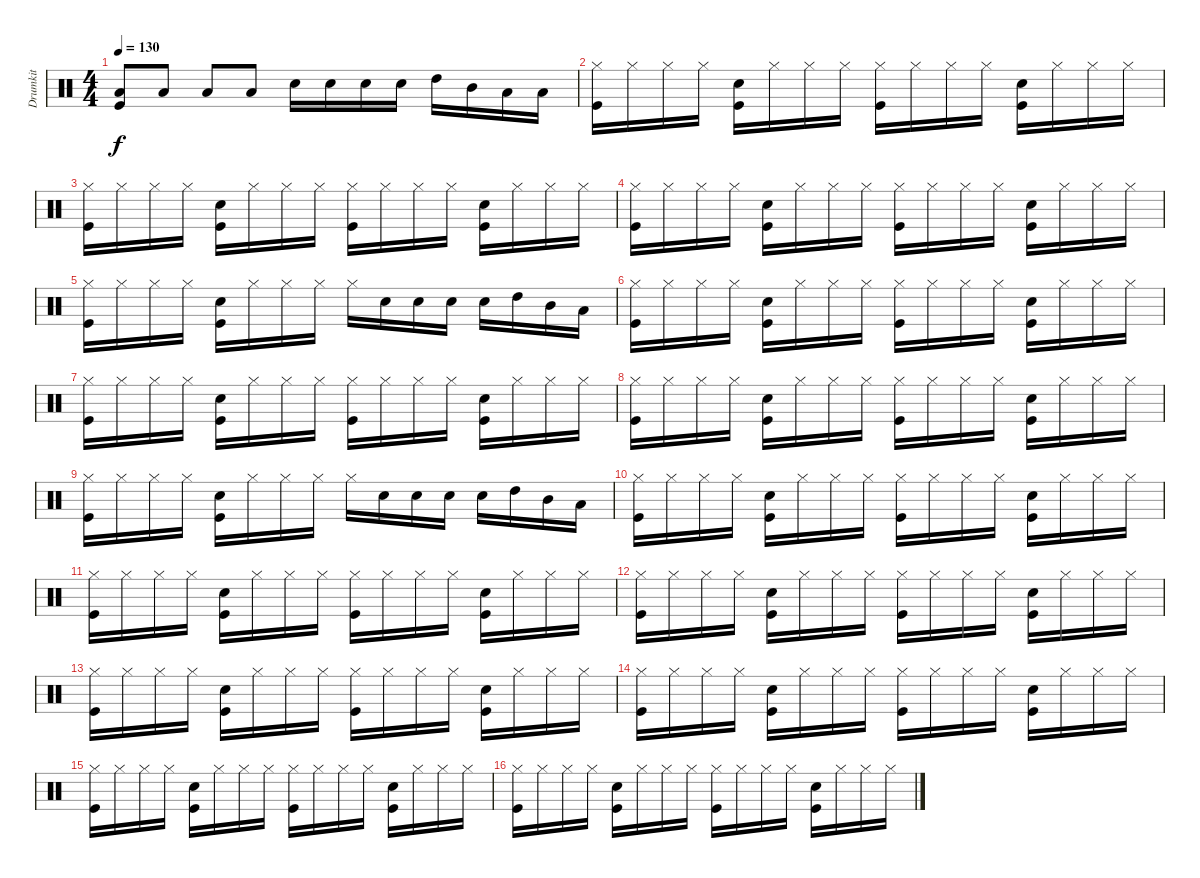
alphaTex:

\track ("Drumkit" "Drumkit") {instrument percussion}
\staff {score}
\articulation defaults
\ts (4 4)
\tempo 130
\clef neutral
\ks c
("Low Tom (hit)" "Kick (hit)").8{dy f} "Low Tom (hit)".8 "Low Tom (hit)".8 "Low Tom (hit)".8 "Snare (hit) 2".16 "Snare (hit) 2".16 "Snare (hit) 2".16 "Snare (hit) 2".16 "High Tom (hit)".16 "Mid Tom (hit)".16 "Low Tom (hit)".16 "Low Tom (hit)".16 |
("Hi-Hat (closed)" "Kick (hit)").16 "Hi-Hat (closed)".16 "Hi-Hat (closed)".16 "Hi-Hat (closed)".16 ("Snare (hit) 2" "Kick (hit)").16 "Hi-Hat (closed)".16 "Hi-Hat (closed)".16 "Hi-Hat (closed)".16 ("Hi-Hat (closed)" "Kick (hit)").16 "Hi-Hat (closed)".16 "Hi-Hat (closed)".16 "Hi-Hat (closed)".16 ("Snare (hit) 2" "Kick (hit)").16 "Hi-Hat (closed)".16 "Hi-Hat (closed)".16 "Hi-Hat (closed)".16 |
("Hi-Hat (closed)" "Kick (hit)").16 "Hi-Hat (closed)".16 "Hi-Hat (closed)".16 "Hi-Hat (closed)".16 ("Snare (hit) 2" "Kick (hit)").16 "Hi-Hat (closed)".16 "Hi-Hat (closed)".16 "Hi-Hat (closed)".16 ("Hi-Hat (closed)" "Kick (hit)").16 "Hi-Hat (closed)".16 "Hi-Hat (closed)".16 "Hi-Hat (closed)".16 ("Snare (hit) 2" "Kick (hit)").16 "Hi-Hat (closed)".16 "Hi-Hat (closed)".16 "Hi-Hat (closed)".16 |
("Hi-Hat (closed)" "Kick (hit)").16 "Hi-Hat (closed)".16 "Hi-Hat (closed)".16 "Hi-Hat (closed)".16 ("Snare (hit) 2" "Kick (hit)").16 "Hi-Hat (closed)".16 "Hi-Hat (closed)".16 "Hi-Hat (closed)".16 ("Hi-Hat (closed)" "Kick (hit)").16 "Hi-Hat (closed)".16 "Hi-Hat (closed)".16 "Hi-Hat (closed)".16 ("Snare (hit) 2" "Kick (hit)").16 "Hi-Hat (closed)".16 "Hi-Hat (closed)".16 "Hi-Hat (closed)".16 |
("Hi-Hat (closed)" "Kick (hit)").16 "Hi-Hat (closed)".16 "Hi-Hat (closed)".16 "Hi-Hat (closed)".16 ("Snare (hit) 2" "Kick (hit)").16 "Hi-Hat (closed)".16 "Hi-Hat (closed)".16 "Hi-Hat (closed)".16 "Hi-Hat (closed)".16 "Snare (hit) 2".16 "Snare (hit) 2".16 "Snare (hit) 2".16 "Snare (hit) 2".16 "High Tom (hit)".16 "Mid Tom (hit)".16 "Low Tom (hit)".16 |
("Hi-Hat (closed)" "Kick (hit)").16 "Hi-Hat (closed)".16 "Hi-Hat (closed)".16 "Hi-Hat (closed)".16 ("Snare (hit) 2" "Kick (hit)").16 "Hi-Hat (closed)".16 "Hi-Hat (closed)".16 "Hi-Hat (closed)".16 ("Hi-Hat (closed)" "Kick (hit)").16 "Hi-Hat (closed)".16 "Hi-Hat (closed)".16 "Hi-Hat (closed)".16 ("Snare (hit) 2" "Kick (hit)").16 "Hi-Hat (closed)".16 "Hi-Hat (closed)".16 "Hi-Hat (closed)".16 |
("Hi-Hat (closed)" "Kick (hit)").16 "Hi-Hat (closed)".16 "Hi-Hat (closed)".16 "Hi-Hat (closed)".16 ("Snare (hit) 2" "Kick (hit)").16 "Hi-Hat (closed)".16 "Hi-Hat (closed)".16 "Hi-Hat (closed)".16 ("Hi-Hat (closed)" "Kick (hit)").16 "Hi-Hat (closed)".16 "Hi-Hat (closed)".16 "Hi-Hat (closed)".16 ("Snare (hit) 2" "Kick (hit)").16 "Hi-Hat (closed)".16 "Hi-Hat (closed)".16 "Hi-Hat (closed)".16 |
("Hi-Hat (closed)" "Kick (hit)").16 "Hi-Hat (closed)".16 "Hi-Hat (closed)".16 "Hi-Hat (closed)".16 ("Snare (hit) 2" "Kick (hit)").16 "Hi-Hat (closed)".16 "Hi-Hat (closed)".16 "Hi-Hat (closed)".16 ("Hi-Hat (closed)" "Kick (hit)").16 "Hi-Hat (closed)".16 "Hi-Hat (closed)".16 "Hi-Hat (closed)".16 ("Snare (hit) 2" "Kick (hit)").16 "Hi-Hat (closed)".16 "Hi-Hat (closed)".16 "Hi-Hat (closed)".16 |
("Hi-Hat (closed)" "Kick (hit)").16 "Hi-Hat (closed)".16 "Hi-Hat (closed)".16 "Hi-Hat (closed)".16 ("Snare (hit) 2" "Kick (hit)").16 "Hi-Hat (closed)".16 "Hi-Hat (closed)".16 "Hi-Hat (closed)".16 "Hi-Hat (closed)".16 "Snare (hit) 2".16 "Snare (hit) 2".16 "Snare (hit) 2".16 "Snare (hit) 2".16 "High Tom (hit)".16 "Mid Tom (hit)".16 "Low Tom (hit)".16 |
("Hi-Hat (closed)" "Kick (hit)").16 "Hi-Hat (closed)".16 "Hi-Hat (closed)".16 "Hi-Hat (closed)".16 ("Snare (hit) 2" "Kick (hit)").16 "Hi-Hat (closed)".16 "Hi-Hat (closed)".16 "Hi-Hat (closed)".16 ("Hi-Hat (closed)" "Kick (hit)").16 "Hi-Hat (closed)".16 "Hi-Hat (closed)".16 "Hi-Hat (closed)".16 ("Snare (hit) 2" "Kick (hit)").16 "Hi-Hat (closed)".16 "Hi-Hat (closed)".16 "Hi-Hat (closed)".16 |
("Hi-Hat (closed)" "Kick (hit)").16 "Hi-Hat (closed)".16 "Hi-Hat (closed)".16 "Hi-Hat (closed)".16 ("Snare (hit) 2" "Kick (hit)").16 "Hi-Hat (closed)".16 "Hi-Hat (closed)".16 "Hi-Hat (closed)".16 ("Hi-Hat (closed)" "Kick (hit)").16 "Hi-Hat (closed)".16 "Hi-Hat (closed)".16 "Hi-Hat (closed)".16 ("Snare (hit) 2" "Kick (hit)").16 "Hi-Hat (closed)".16 "Hi-Hat (closed)".16 "Hi-Hat (closed)".16 |
("Hi-Hat (closed)" "Kick (hit)").16 "Hi-Hat (closed)".16 "Hi-Hat (closed)".16 "Hi-Hat (closed)".16 ("Snare (hit) 2" "Kick (hit)").16 "Hi-Hat (closed)".16 "Hi-Hat (closed)".16 "Hi-Hat (closed)".16 ("Hi-Hat (closed)" "Kick (hit)").16 "Hi-Hat (closed)".16 "Hi-Hat (closed)".16 "Hi-Hat (closed)".16 ("Snare (hit) 2" "Kick (hit)").16 "Hi-Hat (closed)".16 "Hi-Hat (closed)".16 "Hi-Hat (closed)".16 |
("Hi-Hat (closed)" "Kick (hit)").16 "Hi-Hat (closed)".16 "Hi-Hat (closed)".16 "Hi-Hat (closed)".16 ("Snare (hit) 2" "Kick (hit)").16 "Hi-Hat (closed)".16 "Hi-Hat (closed)".16 "Hi-Hat (closed)".16 ("Hi-Hat (closed)" "Kick (hit)").16 "Hi-Hat (closed)".16 "Hi-Hat (closed)".16 "Hi-Hat (closed)".16 ("Snare (hit) 2" "Kick (hit)").16 "Hi-Hat (closed)".16 "Hi-Hat (closed)".16 "Hi-Hat (closed)".16 |
("Hi-Hat (closed)" "Kick (hit)").16 "Hi-Hat (closed)".16 "Hi-Hat (closed)".16 "Hi-Hat (closed)".16 ("Snare (hit) 2" "Kick (hit)").16 "Hi-Hat (closed)".16 "Hi-Hat (closed)".16 "Hi-Hat (closed)".16 ("Hi-Hat (closed)" "Kick (hit)").16 "Hi-Hat (closed)".16 "Hi-Hat (closed)".16 "Hi-Hat (closed)".16 ("Snare (hit) 2" "Kick (hit)").16 "Hi-Hat (closed)".16 "Hi-Hat (closed)".16 "Hi-Hat (closed)".16 |
("Hi-Hat (closed)" "Kick (hit)").16 "Hi-Hat (closed)".16 "Hi-Hat (closed)".16 "Hi-Hat (closed)".16 ("Snare (hit) 2" "Kick (hit)").16 "Hi-Hat (closed)".16 "Hi-Hat (closed)".16 "Hi-Hat (closed)".16 ("Hi-Hat (closed)" "Kick (hit)").16 "Hi-Hat (closed)".16 "Hi-Hat (closed)".16 "Hi-Hat (closed)".16 ("Snare (hit) 2" "Kick (hit)").16 "Hi-Hat (closed)".16 "Hi-Hat (closed)".16 "Hi-Hat (closed)".16 |
("Hi-Hat (closed)" "Kick (hit)").16 "Hi-Hat (closed)".16 "Hi-Hat (closed)".16 "Hi-Hat (closed)".16 ("Snare (hit) 2" "Kick (hit)").16 "Hi-Hat (closed)".16 "Hi-Hat (closed)".16 "Hi-Hat (closed)".16 ("Hi-Hat (closed)" "Kick (hit)").16 "Hi-Hat (closed)".16 "Hi-Hat (closed)".16 "Hi-Hat (closed)".16 ("Snare (hit) 2" "Kick (hit)").16 "Hi-Hat (closed)".16 "Hi-Hat (closed)".16 "Hi-Hat (closed)".16
